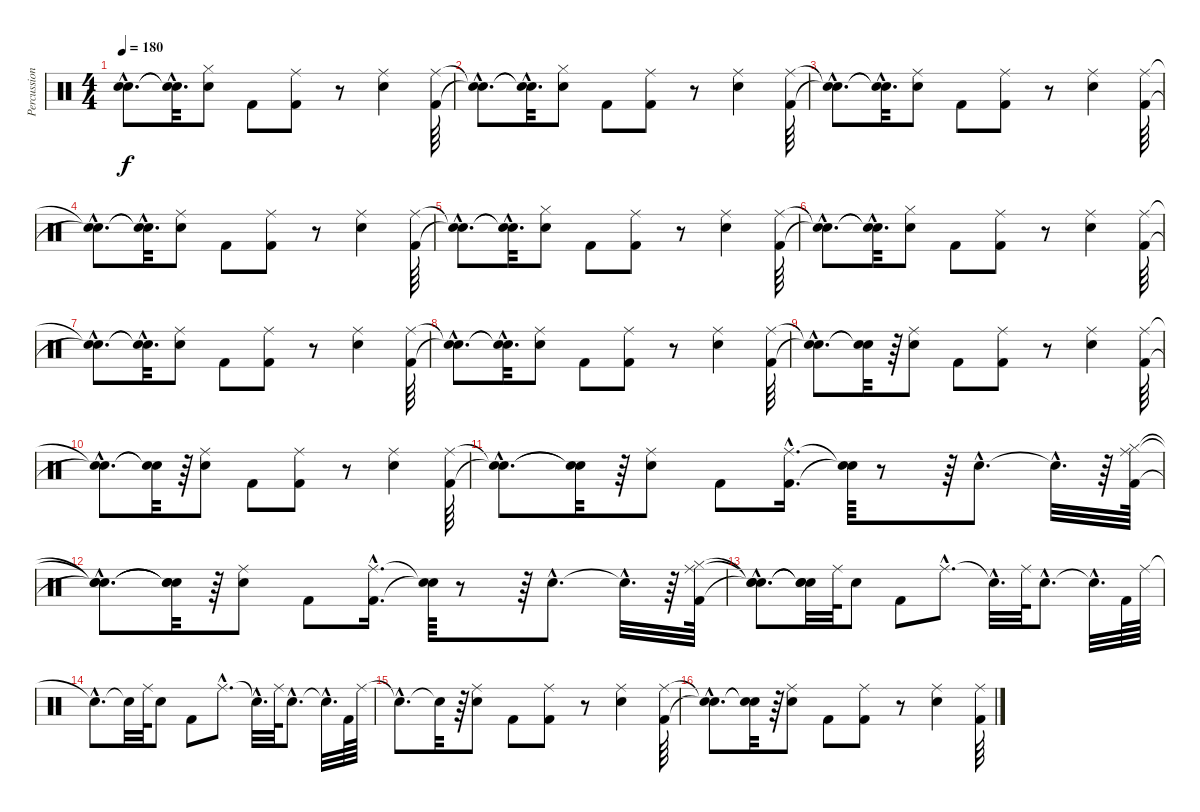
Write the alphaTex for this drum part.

\track ("Percussion" "Percussion") {instrument percussion}
\staff {score}
\articulation defaults
\ts (4 4)
\tempo 180
\clef neutral
\ks c
("Snare (hit)"{hac t} "Snare (hit)"{hac t}).8{d dy f} ("Snare (hit)"{hac t} "Snare (hit)"{hac t}).32{d} ("Hi-Hat (closed)" "Snare (hit) 2").8 "Kick (hit) 2".8 ("Ride (middle)" "Kick (hit) 2").8 r.8 ("Ride (middle)" "Snare (hit) 2").4 ("Ride (middle)" "Kick (hit) 2").64 |
("Snare (hit)"{hac t} "Snare (hit)"{hac t}).8{d} ("Snare (hit)"{hac t} "Snare (hit)"{hac t}).32{d} ("Hi-Hat (closed)" "Snare (hit) 2").8 "Kick (hit) 2".8 ("Ride (middle)" "Kick (hit) 2").8 r.8 ("Ride (middle)" "Snare (hit) 2").4 ("Ride (middle)" "Kick (hit) 2").64 |
("Snare (hit)"{hac t} "Snare (hit)"{hac t}).8{d} ("Snare (hit)"{hac t} "Snare (hit)"{hac t}).32{d} ("Snare (hit) 2" "Ride (middle)").8 "Kick (hit) 2".8 ("Kick (hit) 2" "Ride (middle)").8 r.8 ("Ride (middle)" "Snare (hit) 2").4 ("Kick (hit) 2" "Ride (middle)").64 |
("Snare (hit)"{hac t} "Snare (hit)"{hac t}).8{d} ("Snare (hit)"{hac t} "Snare (hit)"{hac t}).32{d} ("Snare (hit) 2" "Ride (middle)").8 "Kick (hit) 2".8 ("Kick (hit) 2" "Ride (middle)").8 r.8 ("Ride (middle)" "Snare (hit) 2").4 ("Kick (hit) 2" "Ride (middle)").64 |
("Snare (hit)"{hac t} "Snare (hit)"{hac t}).8{d} ("Snare (hit)"{hac t} "Snare (hit)"{hac t}).32{d} ("Hi-Hat (closed)" "Snare (hit) 2").8 "Kick (hit) 2".8 ("Ride (middle)" "Kick (hit) 2").8 r.8 ("Ride (middle)" "Snare (hit) 2").4 ("Ride (middle)" "Kick (hit) 2").64 |
("Snare (hit)"{hac t} "Snare (hit)"{hac t}).8{d} ("Snare (hit)"{hac t} "Snare (hit)"{hac t}).32{d} ("Hi-Hat (closed)" "Snare (hit) 2").8 "Kick (hit) 2".8 ("Ride (middle)" "Kick (hit) 2").8 r.8 ("Ride (middle)" "Snare (hit) 2").4 ("Ride (middle)" "Kick (hit) 2").64 |
("Snare (hit)"{hac t} "Snare (hit)"{hac t}).8{d} ("Snare (hit)"{hac t} "Snare (hit)"{hac t}).32{d} ("Snare (hit) 2" "Ride (middle)").8 "Kick (hit) 2".8 ("Kick (hit) 2" "Ride (middle)").8 r.8 ("Ride (middle)" "Snare (hit) 2").4 ("Kick (hit) 2" "Ride (middle)").64 |
("Snare (hit)"{hac t} "Snare (hit)"{hac t}).8{d} ("Snare (hit)"{hac t} "Snare (hit)"{hac t}).32{d} ("Snare (hit) 2" "Ride (middle)").8 "Kick (hit) 2".8 ("Kick (hit) 2" "Ride (middle)").8 r.8 ("Ride (middle)" "Snare (hit) 2").4 ("Kick (hit) 2" "Ride (middle)").64 |
("Snare (hit)"{hac t} "Snare (hit)"{hac t}).8{d} ("Snare (hit)"{t} "Snare (hit)"{t}).32 r.64 ("Ride (middle)" "Snare (hit) 2").8 "Kick (hit) 2".8 ("Kick (hit) 2" "Ride (middle)").8 r.8 ("Snare (hit) 2" "Ride (middle)").4 ("Kick (hit) 2" "Ride (middle)").64 |
("Snare (hit)"{hac t} "Snare (hit)"{hac t}).8{d} ("Snare (hit)"{t} "Snare (hit)"{t}).32 r.64 ("Ride (middle)" "Snare (hit) 2").8 "Kick (hit) 2".8 ("Kick (hit) 2" "Ride (middle)").8 r.8 ("Snare (hit) 2" "Ride (middle)").4 ("Kick (hit) 2" "Ride (middle)").64 |
("Snare (hit)"{hac t} "Snare (hit)"{hac t}).8{d} ("Snare (hit)"{t} "Snare (hit)"{t}).32 r.64 ("Snare (hit) 2" "Ride (middle)").8 "Kick (hit) 2".8 ("Kick (hit) 2"{hac} "Ride (middle)"{hac}).16{d} ("Snare (hit)"{t} "Snare (hit)"{t}).64 r.8 r.64 "Snare (hit) 2"{hac}.8{d} "Snare (hit)"{hac t}.32{d} r.64 ("Ride (middle)" "Kick (hit) 2" "Hi-Hat (closed)").64 |
("Snare (hit)"{hac t} "Snare (hit)"{hac t} "Snare (hit)"{hac t}).8{d} ("Snare (hit)"{t} "Snare (hit)"{t} "Snare (hit)"{t}).32 r.64 ("Snare (hit) 2" "Ride (middle)").8 "Kick (hit) 2".8 ("Kick (hit) 2"{hac} "Ride (middle)"{hac}).16{d} ("Snare (hit)"{t} "Snare (hit)"{t}).64 r.8 r.64 "Snare (hit) 2"{hac}.8{d} "Snare (hit)"{hac t}.32{d} r.64 ("Ride (middle)" "Kick (hit) 2" "Hi-Hat (closed)").64 |
("Snare (hit)"{hac t} "Snare (hit)"{hac t} "Snare (hit)"{hac t}).8{d} ("Snare (hit)"{t} "Snare (hit)"{t} "Snare (hit)"{t}).32 "Ride (middle)".64 "Snare (hit) 2".8 "Kick (hit) 2".8 "Ride (middle)"{hac}.8{d} "Snare (hit)"{hac t}.32{d} "Ride (middle)".64 "Snare (hit) 2"{hac}.8{d} "Snare (hit)"{hac t}.32{d} "Kick (hit) 2".64 "Ride (middle)".64 |
"Snare (hit)"{hac t}.8{d} "Snare (hit)"{t}.32 "Ride (middle)".64 "Snare (hit) 2".8 "Kick (hit) 2".8 "Ride (middle)"{hac}.8{d} "Snare (hit)"{hac t}.32{d} "Ride (middle)".64 "Snare (hit) 2"{hac}.8{d} "Snare (hit)"{hac t}.32{d} "Kick (hit) 2".64 "Ride (middle)".64 |
"Snare (hit)"{hac t}.8{d} "Snare (hit)"{t}.32 r.64 ("Ride (middle)" "Snare (hit) 2").8 "Kick (hit) 2".8 ("Kick (hit) 2" "Ride (middle)").8 r.8 ("Snare (hit) 2" "Ride (middle)").4 ("Kick (hit) 2" "Ride (middle)").64 |
("Snare (hit)"{hac t} "Snare (hit)"{hac t}).8{d} ("Snare (hit)"{t} "Snare (hit)"{t}).32 r.64 ("Ride (middle)" "Snare (hit) 2").8 "Kick (hit) 2".8 ("Kick (hit) 2" "Ride (middle)").8 r.8 ("Snare (hit) 2" "Ride (middle)").4 ("Kick (hit) 2" "Ride (middle)").64
